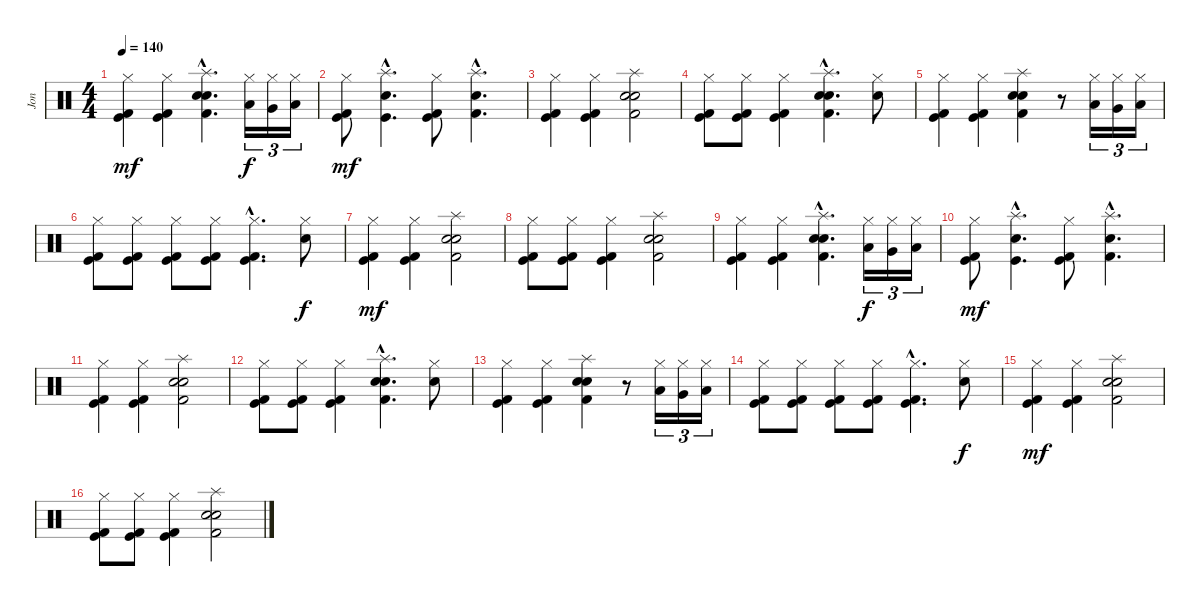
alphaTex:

\track ("Jon" "Jon") {instrument percussion}
\staff {score}
\articulation defaults
\ts (4 4)
\tempo 140
\clef neutral
\ks c
("Kick (hit) 2" "Kick (hit)" "Hi-Hat (closed)").4{dy mf} ("Kick (hit) 2" "Kick (hit)" "Hi-Hat (closed)").4 ("Electric Snare (hit)"{hac} "Electric Snare (hit)"{hac} "Splash (hit)"{hac} "Kick (hit) 2"{hac}).4{d} ("Low Tom (hit)" "Hi-Hat (closed)").16{tu (3 2) dy f} ("Very Low Tom (hit)" "Hi-Hat (closed)").16{tu (3 2)} ("Low Floor Tom (hit)" "Hi-Hat (closed)").16{tu (3 2)} |
("Kick (hit)" "Kick (hit) 2" "Hi-Hat (closed)").8{dy mf} ("Electric Snare (hit)"{hac} "Kick (hit)"{hac} "Splash (hit)"{hac}).4{d} ("Kick (hit)" "Kick (hit) 2" "Hi-Hat (closed)").8 ("Electric Snare (hit)"{hac} "Kick (hit) 2"{hac} "Splash (hit)"{hac}).4{d} |
("Kick (hit)" "Kick (hit) 2" "Hi-Hat (closed)").4 ("Kick (hit)" "Kick (hit) 2" "Hi-Hat (closed)").4 ("Electric Snare (hit)" "Electric Snare (hit)" "Splash (hit)" "Kick (hit) 2").2 |
("Kick (hit) 2" "Kick (hit)" "Hi-Hat (closed)").8 ("Kick (hit) 2" "Kick (hit)" "Hi-Hat (closed)").8 ("Kick (hit) 2" "Kick (hit)" "Hi-Hat (closed)").4 ("Electric Snare (hit)"{hac} "Electric Snare (hit)"{hac} "Splash (hit)"{hac} "Kick (hit) 2"{hac}).4{d} ("Electric Snare (hit)" "Hi-Hat (closed)").8 |
("Kick (hit) 2" "Kick (hit)" "Hi-Hat (closed)").4 ("Kick (hit) 2" "Kick (hit)" "Hi-Hat (closed)").4 ("Electric Snare (hit)" "Electric Snare (hit)" "Splash (hit)" "Kick (hit) 2").4 r.8 ("Low Tom (hit)" "Hi-Hat (closed)").16{tu (3 2)} ("Very Low Tom (hit)" "Hi-Hat (closed)").16{tu (3 2)} ("Low Floor Tom (hit)" "Hi-Hat (closed)").16{tu (3 2)} |
("Kick (hit) 2" "Kick (hit)" "Hi-Hat (closed)").8 ("Kick (hit) 2" "Kick (hit)" "Hi-Hat (closed)").8 ("Kick (hit) 2" "Kick (hit)" "Hi-Hat (closed)").8 ("Kick (hit) 2" "Kick (hit)" "Hi-Hat (closed)").8 ("Kick (hit) 2"{hac} "Kick (hit)"{hac} "Hi-Hat (closed)"{hac}).4{d} ("Electric Snare (hit)" "Hi-Hat (closed)").8{dy f} |
("Kick (hit) 2" "Kick (hit)" "Hi-Hat (closed)").4{dy mf} ("Kick (hit) 2" "Kick (hit)" "Hi-Hat (closed)").4 ("Electric Snare (hit)" "Electric Snare (hit)" "Splash (hit)" "Kick (hit) 2").2 |
("Kick (hit) 2" "Kick (hit)" "Hi-Hat (closed)").8 ("Kick (hit) 2" "Kick (hit)" "Hi-Hat (closed)").8 ("Kick (hit) 2" "Kick (hit)" "Hi-Hat (closed)").4 ("Electric Snare (hit)" "Electric Snare (hit)" "Splash (hit)" "Kick (hit) 2").2 |
("Kick (hit) 2" "Kick (hit)" "Hi-Hat (closed)").4 ("Kick (hit) 2" "Kick (hit)" "Hi-Hat (closed)").4 ("Electric Snare (hit)"{hac} "Electric Snare (hit)"{hac} "Splash (hit)"{hac} "Kick (hit) 2"{hac}).4{d} ("Low Tom (hit)" "Hi-Hat (closed)").16{tu (3 2) dy f} ("Very Low Tom (hit)" "Hi-Hat (closed)").16{tu (3 2)} ("Low Floor Tom (hit)" "Hi-Hat (closed)").16{tu (3 2)} |
("Kick (hit)" "Kick (hit) 2" "Hi-Hat (closed)").8{dy mf} ("Electric Snare (hit)"{hac} "Kick (hit)"{hac} "Splash (hit)"{hac}).4{d} ("Kick (hit)" "Kick (hit) 2" "Hi-Hat (closed)").8 ("Electric Snare (hit)"{hac} "Kick (hit) 2"{hac} "Splash (hit)"{hac}).4{d} |
("Kick (hit)" "Kick (hit) 2" "Hi-Hat (closed)").4 ("Kick (hit)" "Kick (hit) 2" "Hi-Hat (closed)").4 ("Electric Snare (hit)" "Electric Snare (hit)" "Splash (hit)" "Kick (hit) 2").2 |
("Kick (hit) 2" "Kick (hit)" "Hi-Hat (closed)").8 ("Kick (hit) 2" "Kick (hit)" "Hi-Hat (closed)").8 ("Kick (hit) 2" "Kick (hit)" "Hi-Hat (closed)").4 ("Electric Snare (hit)"{hac} "Electric Snare (hit)"{hac} "Splash (hit)"{hac} "Kick (hit) 2"{hac}).4{d} ("Electric Snare (hit)" "Hi-Hat (closed)").8 |
("Kick (hit) 2" "Kick (hit)" "Hi-Hat (closed)").4 ("Kick (hit) 2" "Kick (hit)" "Hi-Hat (closed)").4 ("Electric Snare (hit)" "Electric Snare (hit)" "Splash (hit)" "Kick (hit) 2").4 r.8 ("Low Tom (hit)" "Hi-Hat (closed)").16{tu (3 2)} ("Very Low Tom (hit)" "Hi-Hat (closed)").16{tu (3 2)} ("Low Floor Tom (hit)" "Hi-Hat (closed)").16{tu (3 2)} |
("Kick (hit) 2" "Kick (hit)" "Hi-Hat (closed)").8 ("Kick (hit) 2" "Kick (hit)" "Hi-Hat (closed)").8 ("Kick (hit) 2" "Kick (hit)" "Hi-Hat (closed)").8 ("Kick (hit) 2" "Kick (hit)" "Hi-Hat (closed)").8 ("Kick (hit) 2"{hac} "Kick (hit)"{hac} "Hi-Hat (closed)"{hac}).4{d} ("Electric Snare (hit)" "Hi-Hat (closed)").8{dy f} |
("Kick (hit) 2" "Kick (hit)" "Hi-Hat (closed)").4{dy mf} ("Kick (hit) 2" "Kick (hit)" "Hi-Hat (closed)").4 ("Electric Snare (hit)" "Electric Snare (hit)" "Splash (hit)" "Kick (hit) 2").2 |
("Kick (hit) 2" "Kick (hit)" "Hi-Hat (closed)").8 ("Kick (hit) 2" "Kick (hit)" "Hi-Hat (closed)").8 ("Kick (hit) 2" "Kick (hit)" "Hi-Hat (closed)").4 ("Electric Snare (hit)" "Electric Snare (hit)" "Splash (hit)" "Kick (hit) 2").2
